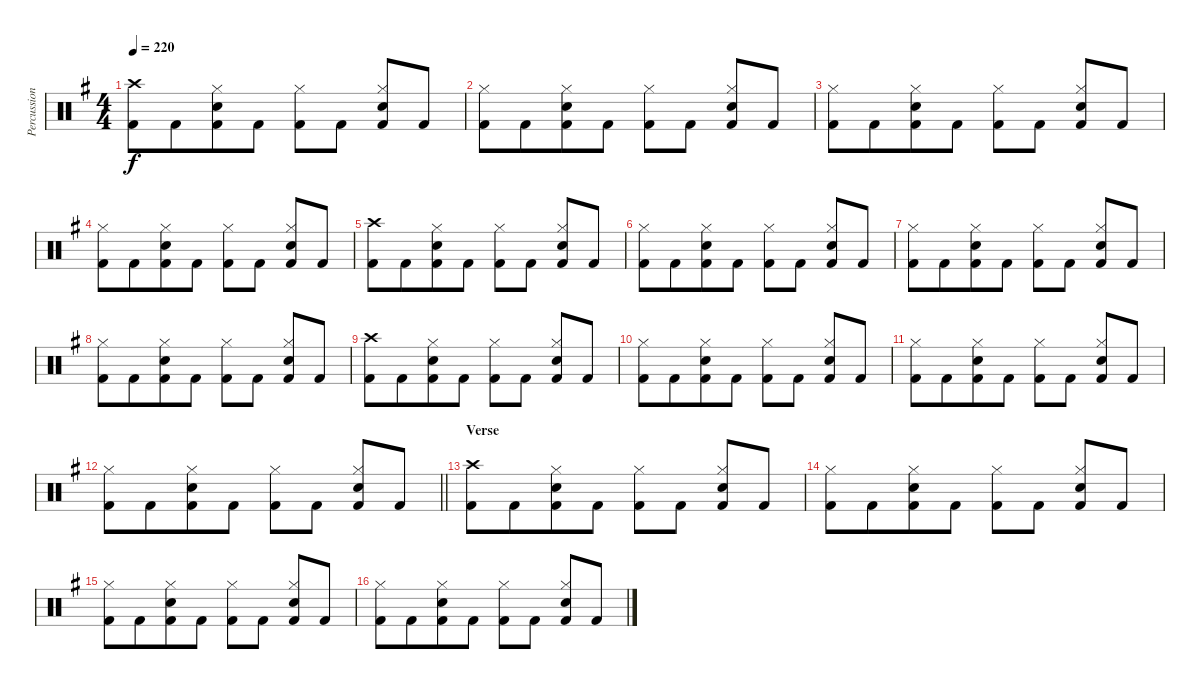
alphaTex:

\track ("Percussion" "Percussion") {instrument percussion}
\staff {score}
\articulation defaults
\ts (4 4)
\tempo 220
\clef neutral
\ks eminor
("Crash high (hit)" "Kick (hit) 2").8{dy f} "Kick (hit) 2".8{beam merge} ("Hi-Hat (closed)" "Snare (hit) 2" "Kick (hit) 2").8{beam merge} "Kick (hit) 2".8 ("Hi-Hat (closed)" "Kick (hit) 2").8{beam merge} "Kick (hit) 2".8 ("Hi-Hat (closed)" "Snare (hit) 2" "Kick (hit) 2").8 "Kick (hit) 2".8 |
("Hi-Hat (closed)" "Kick (hit) 2").8 "Kick (hit) 2".8{beam merge} ("Hi-Hat (closed)" "Snare (hit) 2" "Kick (hit) 2").8{beam merge} "Kick (hit) 2".8 ("Hi-Hat (closed)" "Kick (hit) 2").8{beam merge} "Kick (hit) 2".8 ("Hi-Hat (closed)" "Snare (hit) 2" "Kick (hit) 2").8 "Kick (hit) 2".8 |
("Hi-Hat (closed)" "Kick (hit) 2").8 "Kick (hit) 2".8{beam merge} ("Hi-Hat (closed)" "Snare (hit) 2" "Kick (hit) 2").8{beam merge} "Kick (hit) 2".8 ("Hi-Hat (closed)" "Kick (hit) 2").8{beam merge} "Kick (hit) 2".8 ("Hi-Hat (closed)" "Snare (hit) 2" "Kick (hit) 2").8 "Kick (hit) 2".8 |
("Hi-Hat (closed)" "Kick (hit) 2").8 "Kick (hit) 2".8{beam merge} ("Hi-Hat (closed)" "Snare (hit) 2" "Kick (hit) 2").8{beam merge} "Kick (hit) 2".8 ("Hi-Hat (closed)" "Kick (hit) 2").8{beam merge} "Kick (hit) 2".8 ("Hi-Hat (closed)" "Snare (hit) 2" "Kick (hit) 2").8 "Kick (hit) 2".8 |
("Crash high (hit)" "Kick (hit) 2").8 "Kick (hit) 2".8{beam merge} ("Hi-Hat (closed)" "Snare (hit) 2" "Kick (hit) 2").8{beam merge} "Kick (hit) 2".8 ("Hi-Hat (closed)" "Kick (hit) 2").8{beam merge} "Kick (hit) 2".8 ("Hi-Hat (closed)" "Snare (hit) 2" "Kick (hit) 2").8 "Kick (hit) 2".8 |
("Hi-Hat (closed)" "Kick (hit) 2").8 "Kick (hit) 2".8{beam merge} ("Hi-Hat (closed)" "Snare (hit) 2" "Kick (hit) 2").8{beam merge} "Kick (hit) 2".8 ("Hi-Hat (closed)" "Kick (hit) 2").8{beam merge} "Kick (hit) 2".8 ("Hi-Hat (closed)" "Snare (hit) 2" "Kick (hit) 2").8 "Kick (hit) 2".8 |
("Hi-Hat (closed)" "Kick (hit) 2").8 "Kick (hit) 2".8{beam merge} ("Hi-Hat (closed)" "Snare (hit) 2" "Kick (hit) 2").8{beam merge} "Kick (hit) 2".8 ("Hi-Hat (closed)" "Kick (hit) 2").8{beam merge} "Kick (hit) 2".8 ("Hi-Hat (closed)" "Snare (hit) 2" "Kick (hit) 2").8 "Kick (hit) 2".8 |
("Hi-Hat (closed)" "Kick (hit) 2").8 "Kick (hit) 2".8{beam merge} ("Hi-Hat (closed)" "Snare (hit) 2" "Kick (hit) 2").8{beam merge} "Kick (hit) 2".8 ("Hi-Hat (closed)" "Kick (hit) 2").8{beam merge} "Kick (hit) 2".8 ("Hi-Hat (closed)" "Snare (hit) 2" "Kick (hit) 2").8 "Kick (hit) 2".8 |
("Crash high (hit)" "Kick (hit) 2").8 "Kick (hit) 2".8{beam merge} ("Hi-Hat (closed)" "Snare (hit) 2" "Kick (hit) 2").8{beam merge} "Kick (hit) 2".8 ("Hi-Hat (closed)" "Kick (hit) 2").8{beam merge} "Kick (hit) 2".8 ("Hi-Hat (closed)" "Snare (hit) 2" "Kick (hit) 2").8 "Kick (hit) 2".8 |
("Hi-Hat (closed)" "Kick (hit) 2").8 "Kick (hit) 2".8{beam merge} ("Hi-Hat (closed)" "Snare (hit) 2" "Kick (hit) 2").8{beam merge} "Kick (hit) 2".8 ("Hi-Hat (closed)" "Kick (hit) 2").8{beam merge} "Kick (hit) 2".8 ("Hi-Hat (closed)" "Snare (hit) 2" "Kick (hit) 2").8 "Kick (hit) 2".8 |
("Hi-Hat (closed)" "Kick (hit) 2").8 "Kick (hit) 2".8{beam merge} ("Hi-Hat (closed)" "Snare (hit) 2" "Kick (hit) 2").8{beam merge} "Kick (hit) 2".8 ("Hi-Hat (closed)" "Kick (hit) 2").8{beam merge} "Kick (hit) 2".8 ("Hi-Hat (closed)" "Snare (hit) 2" "Kick (hit) 2").8 "Kick (hit) 2".8 |
\barLineRight lightlight
("Hi-Hat (closed)" "Kick (hit) 2").8 "Kick (hit) 2".8{beam merge} ("Hi-Hat (closed)" "Snare (hit) 2" "Kick (hit) 2").8{beam merge} "Kick (hit) 2".8 ("Hi-Hat (closed)" "Kick (hit) 2").8{beam merge} "Kick (hit) 2".8 ("Hi-Hat (closed)" "Snare (hit) 2" "Kick (hit) 2").8 "Kick (hit) 2".8 |
\section ("" "Verse")
("Crash high (hit)" "Kick (hit) 2").8 "Kick (hit) 2".8{beam merge} ("Hi-Hat (closed)" "Snare (hit) 2" "Kick (hit) 2").8{beam merge} "Kick (hit) 2".8 ("Hi-Hat (closed)" "Kick (hit) 2").8{beam merge} "Kick (hit) 2".8 ("Hi-Hat (closed)" "Snare (hit) 2" "Kick (hit) 2").8 "Kick (hit) 2".8 |
("Hi-Hat (closed)" "Kick (hit) 2").8 "Kick (hit) 2".8{beam merge} ("Hi-Hat (closed)" "Snare (hit) 2" "Kick (hit) 2").8{beam merge} "Kick (hit) 2".8 ("Hi-Hat (closed)" "Kick (hit) 2").8{beam merge} "Kick (hit) 2".8 ("Hi-Hat (closed)" "Snare (hit) 2" "Kick (hit) 2").8 "Kick (hit) 2".8 |
("Hi-Hat (closed)" "Kick (hit) 2").8 "Kick (hit) 2".8{beam merge} ("Hi-Hat (closed)" "Snare (hit) 2" "Kick (hit) 2").8{beam merge} "Kick (hit) 2".8 ("Hi-Hat (closed)" "Kick (hit) 2").8{beam merge} "Kick (hit) 2".8 ("Hi-Hat (closed)" "Snare (hit) 2" "Kick (hit) 2").8 "Kick (hit) 2".8 |
("Hi-Hat (closed)" "Kick (hit) 2").8 "Kick (hit) 2".8{beam merge} ("Hi-Hat (closed)" "Snare (hit) 2" "Kick (hit) 2").8{beam merge} "Kick (hit) 2".8 ("Hi-Hat (closed)" "Kick (hit) 2").8{beam merge} "Kick (hit) 2".8 ("Hi-Hat (closed)" "Snare (hit) 2" "Kick (hit) 2").8 "Kick (hit) 2".8
